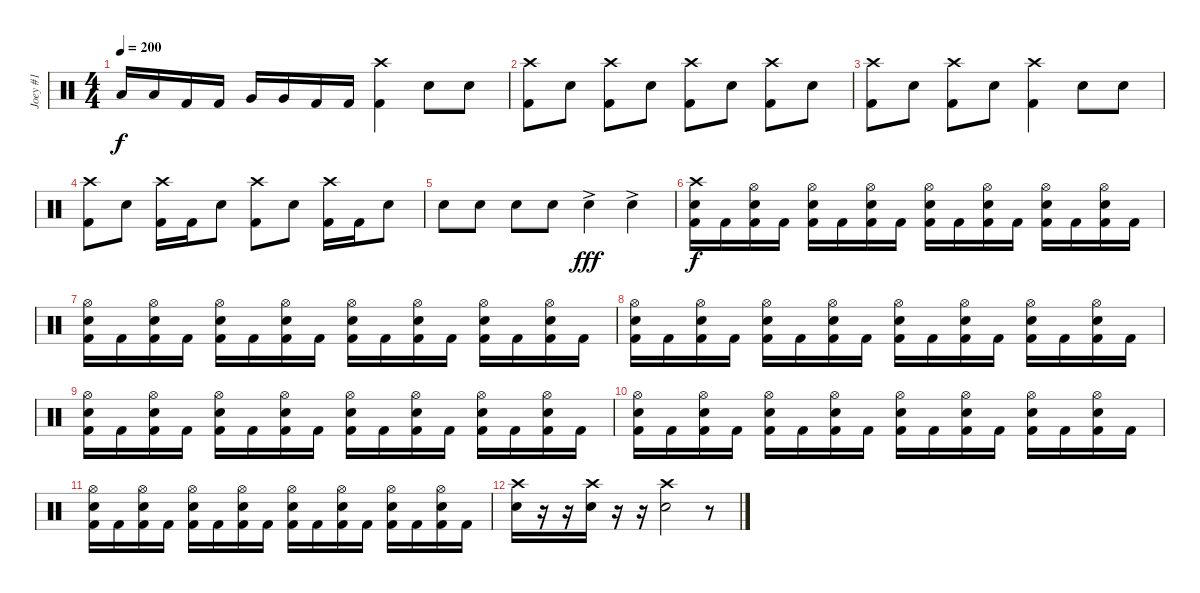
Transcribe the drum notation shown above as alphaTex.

\track ("Joey #1" "Joey #1") {instrument percussion}
\staff {score}
\articulation defaults
\ts (4 4)
\tempo 200
\clef neutral
\ks c "Low Tom (hit)".16{dy f} "Low Tom (hit)".16 "Kick (hit) 2".16 "Kick (hit) 2".16 "Very Low Tom (hit)".16 "Very Low Tom (hit)".16 "Kick (hit) 2".16 "Kick (hit) 2".16
("Crash high (hit)" "Kick (hit) 2").4 "Electric Snare (hit)".8 "Electric Snare (hit)".8 |
("Crash high (hit)" "Kick (hit) 2").8 "Electric Snare (hit)".8 ("Crash high (hit)" "Kick (hit) 2").8 "Electric Snare (hit)".8 ("Crash high (hit)" "Kick (hit) 2").8 "Electric Snare (hit)".8 ("Crash high (hit)" "Kick (hit) 2").8 "Electric Snare (hit)".8 |
("Crash high (hit)" "Kick (hit) 2").8 "Electric Snare (hit)".8 ("Crash high (hit)" "Kick (hit) 2").8 "Electric Snare (hit)".8 ("Crash high (hit)" "Kick (hit) 2").4 "Electric Snare (hit)".8 "Electric Snare (hit)".8 |
("Crash high (hit)" "Kick (hit) 2").8 "Electric Snare (hit)".8 ("Crash high (hit)" "Kick (hit) 2").16 "Kick (hit) 2".16 "Electric Snare (hit)".8 ("Crash high (hit)" "Kick (hit) 2").8 "Electric Snare (hit)".8 ("Crash high (hit)" "Kick (hit) 2").16 "Kick (hit) 2".16 "Electric Snare (hit)".8 |
"Electric Snare (hit)".8 "Electric Snare (hit)".8 "Electric Snare (hit)".8 "Electric Snare (hit)".8 "Electric Snare (hit)"{ac}.4{dy fff} "Electric Snare (hit)"{ac}.4 |
("Crash high (hit)" "Electric Snare (hit)" "Kick (hit) 2").16{dy f} "Kick (hit) 2".16 ("Hi-Hat (open)" "Electric Snare (hit)" "Kick (hit) 2").16 "Kick (hit) 2".16 ("Hi-Hat (open)" "Electric Snare (hit)" "Kick (hit) 2").16 "Kick (hit) 2".16 ("Hi-Hat (open)" "Electric Snare (hit)" "Kick (hit) 2").16 "Kick (hit) 2".16 ("Hi-Hat (open)" "Electric Snare (hit)" "Kick (hit) 2").16 "Kick (hit) 2".16 ("Hi-Hat (open)" "Electric Snare (hit)" "Kick (hit) 2").16 "Kick (hit) 2".16 ("Hi-Hat (open)" "Electric Snare (hit)" "Kick (hit) 2").16 "Kick (hit) 2".16 ("Hi-Hat (open)" "Electric Snare (hit)" "Kick (hit) 2").16 "Kick (hit) 2".16 |
("Hi-Hat (open)" "Electric Snare (hit)" "Kick (hit) 2").16 "Kick (hit) 2".16 ("Hi-Hat (open)" "Electric Snare (hit)" "Kick (hit) 2").16 "Kick (hit) 2".16 ("Hi-Hat (open)" "Electric Snare (hit)" "Kick (hit) 2").16 "Kick (hit) 2".16 ("Hi-Hat (open)" "Electric Snare (hit)" "Kick (hit) 2").16 "Kick (hit) 2".16 ("Hi-Hat (open)" "Electric Snare (hit)" "Kick (hit) 2").16 "Kick (hit) 2".16 ("Hi-Hat (open)" "Electric Snare (hit)" "Kick (hit) 2").16 "Kick (hit) 2".16 ("Hi-Hat (open)" "Electric Snare (hit)" "Kick (hit) 2").16 "Kick (hit) 2".16 ("Hi-Hat (open)" "Electric Snare (hit)" "Kick (hit) 2").16 "Kick (hit) 2".16 |
("Hi-Hat (open)" "Electric Snare (hit)" "Kick (hit) 2").16 "Kick (hit) 2".16 ("Hi-Hat (open)" "Electric Snare (hit)" "Kick (hit) 2").16 "Kick (hit) 2".16 ("Hi-Hat (open)" "Electric Snare (hit)" "Kick (hit) 2").16 "Kick (hit) 2".16 ("Hi-Hat (open)" "Electric Snare (hit)" "Kick (hit) 2").16 "Kick (hit) 2".16 ("Hi-Hat (open)" "Electric Snare (hit)" "Kick (hit) 2").16 "Kick (hit) 2".16 ("Hi-Hat (open)" "Electric Snare (hit)" "Kick (hit) 2").16 "Kick (hit) 2".16 ("Hi-Hat (open)" "Electric Snare (hit)" "Kick (hit) 2").16 "Kick (hit) 2".16 ("Hi-Hat (open)" "Electric Snare (hit)" "Kick (hit) 2").16 "Kick (hit) 2".16 |
("Hi-Hat (open)" "Electric Snare (hit)" "Kick (hit) 2").16 "Kick (hit) 2".16 ("Hi-Hat (open)" "Electric Snare (hit)" "Kick (hit) 2").16 "Kick (hit) 2".16 ("Hi-Hat (open)" "Electric Snare (hit)" "Kick (hit) 2").16 "Kick (hit) 2".16 ("Hi-Hat (open)" "Electric Snare (hit)" "Kick (hit) 2").16 "Kick (hit) 2".16 ("Hi-Hat (open)" "Electric Snare (hit)" "Kick (hit) 2").16 "Kick (hit) 2".16 ("Hi-Hat (open)" "Electric Snare (hit)" "Kick (hit) 2").16 "Kick (hit) 2".16 ("Hi-Hat (open)" "Electric Snare (hit)" "Kick (hit) 2").16 "Kick (hit) 2".16 ("Hi-Hat (open)" "Electric Snare (hit)" "Kick (hit) 2").16 "Kick (hit) 2".16 |
("Hi-Hat (open)" "Electric Snare (hit)" "Kick (hit) 2").16 "Kick (hit) 2".16 ("Hi-Hat (open)" "Electric Snare (hit)" "Kick (hit) 2").16 "Kick (hit) 2".16 ("Hi-Hat (open)" "Electric Snare (hit)" "Kick (hit) 2").16 "Kick (hit) 2".16 ("Hi-Hat (open)" "Electric Snare (hit)" "Kick (hit) 2").16 "Kick (hit) 2".16 ("Hi-Hat (open)" "Electric Snare (hit)" "Kick (hit) 2").16 "Kick (hit) 2".16 ("Hi-Hat (open)" "Electric Snare (hit)" "Kick (hit) 2").16 "Kick (hit) 2".16 ("Hi-Hat (open)" "Electric Snare (hit)" "Kick (hit) 2").16 "Kick (hit) 2".16 ("Hi-Hat (open)" "Electric Snare (hit)" "Kick (hit) 2").16 "Kick (hit) 2".16 |
("Hi-Hat (open)" "Electric Snare (hit)" "Kick (hit) 2").16 "Kick (hit) 2".16 ("Hi-Hat (open)" "Electric Snare (hit)" "Kick (hit) 2").16 "Kick (hit) 2".16 ("Hi-Hat (open)" "Electric Snare (hit)" "Kick (hit) 2").16 "Kick (hit) 2".16 ("Hi-Hat (open)" "Electric Snare (hit)" "Kick (hit) 2").16 "Kick (hit) 2".16 ("Hi-Hat (open)" "Electric Snare (hit)" "Kick (hit) 2").16 "Kick (hit) 2".16 ("Hi-Hat (open)" "Electric Snare (hit)" "Kick (hit) 2").16 "Kick (hit) 2".16 ("Hi-Hat (open)" "Electric Snare (hit)" "Kick (hit) 2").16 "Kick (hit) 2".16 ("Hi-Hat (open)" "Electric Snare (hit)" "Kick (hit) 2").16 "Kick (hit) 2".16 |
("Crash high (hit)" "Electric Snare (hit)").16 r.16 r.16 ("Crash high (hit)" "Electric Snare (hit)").16 r.16 r.16 ("Crash high (hit)" "Electric Snare (hit)").2 r.8
